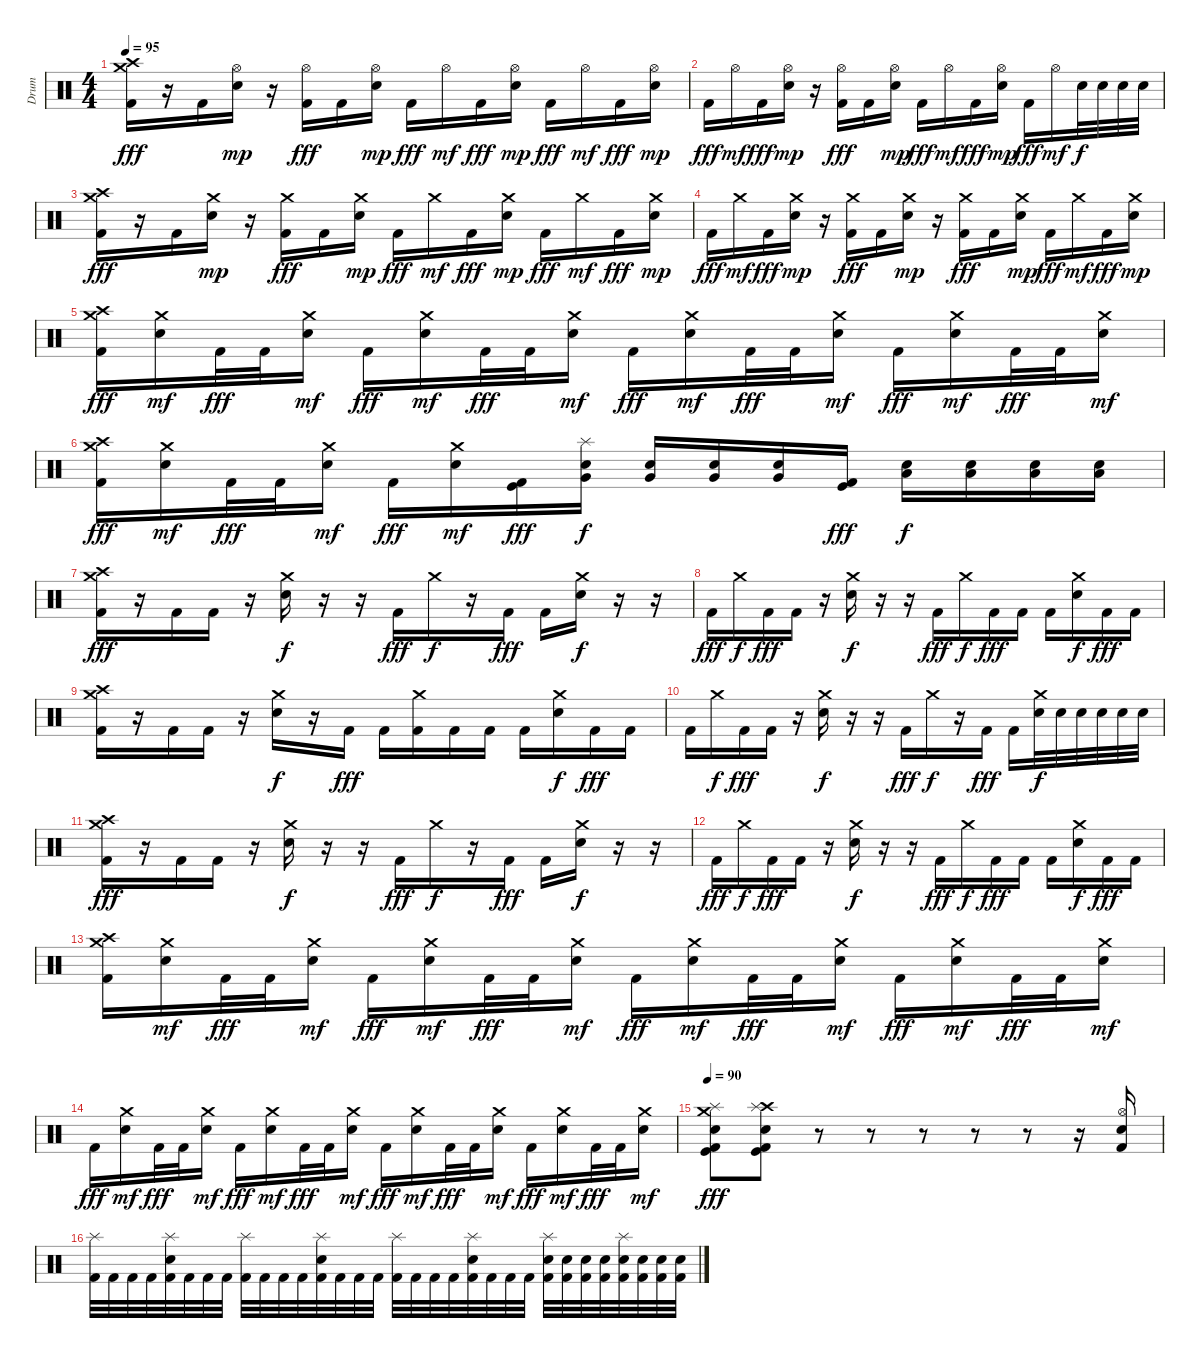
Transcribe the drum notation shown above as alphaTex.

\track ("Drum" "Drum") {instrument percussion}
\staff {score}
\articulation defaults
\ts (4 4)
\tempo 95
\clef neutral
\ks c
("Crash medium (hit)" "Crash high (hit)" "Kick (hit) 2").16{dy fff} r.16 "Kick (hit) 2".16 ("Hi-Hat (open)" "Electric Snare (hit)").16{dy mp} r.16 ("Hi-Hat (open)" "Kick (hit) 2").16{dy fff} "Kick (hit) 2".16 ("Hi-Hat (open)" "Electric Snare (hit)").16{dy mp} "Kick (hit) 2".16{dy fff} "Hi-Hat (open)".16{dy mf} "Kick (hit) 2".16{dy fff} ("Hi-Hat (open)" "Electric Snare (hit)").16{dy mp} "Kick (hit) 2".16{dy fff} "Hi-Hat (open)".16{dy mf} "Kick (hit) 2".16{dy fff} ("Hi-Hat (open)" "Electric Snare (hit)").16{dy mp} |
"Kick (hit) 2".16{dy fff} "Hi-Hat (open)".16{dy mf} "Kick (hit) 2".16{dy fff} ("Hi-Hat (open)" "Electric Snare (hit)").16{dy mp} r.16 ("Hi-Hat (open)" "Kick (hit) 2").16{dy fff} "Kick (hit) 2".16 ("Hi-Hat (open)" "Electric Snare (hit)").16{dy mp} "Kick (hit) 2".16{dy fff} "Hi-Hat (open)".16{dy mf} "Kick (hit) 2".16{dy fff} ("Hi-Hat (open)" "Electric Snare (hit)").16{dy mp} "Kick (hit) 2".16{dy fff} "Hi-Hat (open)".16{dy mf} "Electric Snare (hit)".32{dy f} "Electric Snare (hit)".32 "Electric Snare (hit)".32 "Electric Snare (hit)".32 |
("Crash medium (hit)" "Crash high (hit)" "Kick (hit) 2").16{dy fff} r.16 "Kick (hit) 2".16 ("Crash medium (hit)" "Electric Snare (hit)").16{dy mp} r.16 ("Crash medium (hit)" "Kick (hit) 2").16{dy fff} "Kick (hit) 2".16 ("Crash medium (hit)" "Electric Snare (hit)").16{dy mp} "Kick (hit) 2".16{dy fff} "Crash medium (hit)".16{dy mf} "Kick (hit) 2".16{dy fff} ("Crash medium (hit)" "Electric Snare (hit)").16{dy mp} "Kick (hit) 2".16{dy fff} "Crash medium (hit)".16{dy mf} "Kick (hit) 2".16{dy fff} ("Crash medium (hit)" "Electric Snare (hit)").16{dy mp} |
"Kick (hit) 2".16{dy fff} "Crash medium (hit)".16{dy mf} "Kick (hit) 2".16{dy fff} ("Crash medium (hit)" "Electric Snare (hit)").16{dy mp} r.16 ("Crash medium (hit)" "Kick (hit) 2").16{dy fff} "Kick (hit) 2".16 ("Crash medium (hit)" "Electric Snare (hit)").16{dy mp} r.16 ("Crash medium (hit)" "Kick (hit) 2").16{dy fff} "Kick (hit) 2".16 ("Crash medium (hit)" "Electric Snare (hit)").16{dy mp} "Kick (hit) 2".16{dy fff} "Crash medium (hit)".16{dy mf} "Kick (hit) 2".16{dy fff} ("Crash medium (hit)" "Electric Snare (hit)").16{dy mp} |
("Crash medium (hit)" "Crash high (hit)" "Kick (hit) 2").16{dy fff} ("Crash medium (hit)" "Electric Snare (hit)").16{dy mf} "Kick (hit) 2".32{dy fff} "Kick (hit) 2".32 ("Crash medium (hit)" "Electric Snare (hit)").16{dy mf} "Kick (hit) 2".16{dy fff} ("Crash medium (hit)" "Electric Snare (hit)").16{dy mf} "Kick (hit) 2".32{dy fff} "Kick (hit) 2".32 ("Crash medium (hit)" "Electric Snare (hit)").16{dy mf} "Kick (hit) 2".16{dy fff} ("Crash medium (hit)" "Electric Snare (hit)").16{dy mf} "Kick (hit) 2".32{dy fff} "Kick (hit) 2".32 ("Crash medium (hit)" "Electric Snare (hit)").16{dy mf} "Kick (hit) 2".16{dy fff} ("Crash medium (hit)" "Electric Snare (hit)").16{dy mf} "Kick (hit) 2".32{dy fff} "Kick (hit) 2".32 ("Crash medium (hit)" "Electric Snare (hit)").16{dy mf} |
("Crash medium (hit)" "Crash high (hit)" "Kick (hit) 2").16{dy fff} ("Crash medium (hit)" "Electric Snare (hit)").16{dy mf} "Kick (hit) 2".32{dy fff} "Kick (hit) 2".32 ("Crash medium (hit)" "Electric Snare (hit)").16{dy mf} "Kick (hit) 2".16{dy fff} ("Crash medium (hit)" "Electric Snare (hit)").16{dy mf} ("Kick (hit)" "Kick (hit) 2").16{dy fff} ("Splash (hit)" "Electric Snare (hit)" "Very Low Tom (hit)").16{dy f} ("Electric Snare (hit)" "Very Low Tom (hit)").16 ("Electric Snare (hit)" "Very Low Tom (hit)").16 ("Electric Snare (hit)" "Very Low Tom (hit)").16 ("Kick (hit)" "Kick (hit) 2").16{dy fff} ("Electric Snare (hit)" "Low Floor Tom (hit)").16{dy f} ("Electric Snare (hit)" "Low Floor Tom (hit)").16 ("Electric Snare (hit)" "Low Floor Tom (hit)").16 ("Electric Snare (hit)" "Low Floor Tom (hit)").16 |
("Crash medium (hit)" "Crash high (hit)" "Kick (hit) 2").16{dy fff} r.16 "Kick (hit) 2".16 "Kick (hit) 2".16 r.16 ("Crash medium (hit)" "Electric Snare (hit)").16{dy f} r.16 r.16 "Kick (hit) 2".16{dy fff} "Crash medium (hit)".16{dy f} r.16 "Kick (hit) 2".16{dy fff} "Kick (hit) 2".16 ("Crash medium (hit)" "Electric Snare (hit)").16{dy f} r.16 r.16 |
"Kick (hit) 2".16{dy fff} "Crash medium (hit)".16{dy f} "Kick (hit) 2".16{dy fff} "Kick (hit) 2".16 r.16 ("Crash medium (hit)" "Electric Snare (hit)").16{dy f} r.16 r.16 "Kick (hit) 2".16{dy fff} "Crash medium (hit)".16{dy f} "Kick (hit) 2".16{dy fff} "Kick (hit) 2".16 "Kick (hit) 2".16 ("Crash medium (hit)" "Electric Snare (hit)").16{dy f} "Kick (hit) 2".16{dy fff} "Kick (hit) 2".16 |
("Crash medium (hit)" "Crash high (hit)" "Kick (hit) 2").16 r.16 "Kick (hit) 2".16 "Kick (hit) 2".16 r.16 ("Crash medium (hit)" "Electric Snare (hit)").16{dy f} r.16 "Kick (hit) 2".16{dy fff} "Kick (hit) 2".16 ("Crash medium (hit)" "Kick (hit) 2").16 "Kick (hit) 2".16 "Kick (hit) 2".16 "Kick (hit) 2".16 ("Crash medium (hit)" "Electric Snare (hit)").16{dy f} "Kick (hit) 2".16{dy fff} "Kick (hit) 2".16 |
"Kick (hit) 2".16 "Crash medium (hit)".16{dy f} "Kick (hit) 2".16{dy fff} "Kick (hit) 2".16 r.16 ("Crash medium (hit)" "Electric Snare (hit)").16{dy f} r.16 r.16 "Kick (hit) 2".16{dy fff} "Crash medium (hit)".16{dy f} r.16 "Kick (hit) 2".16{dy fff} "Kick (hit) 2".16 ("Crash medium (hit)" "Electric Snare (hit)").32{dy f} "Electric Snare (hit)".32 "Electric Snare (hit)".32 "Electric Snare (hit)".32 "Electric Snare (hit)".32 "Electric Snare (hit)".32 |
("Crash medium (hit)" "Crash high (hit)" "Kick (hit) 2").16{dy fff} r.16 "Kick (hit) 2".16 "Kick (hit) 2".16 r.16 ("Crash medium (hit)" "Electric Snare (hit)").16{dy f} r.16 r.16 "Kick (hit) 2".16{dy fff} "Crash medium (hit)".16{dy f} r.16 "Kick (hit) 2".16{dy fff} "Kick (hit) 2".16 ("Crash medium (hit)" "Electric Snare (hit)").16{dy f} r.16 r.16 |
"Kick (hit) 2".16{dy fff} "Crash medium (hit)".16{dy f} "Kick (hit) 2".16{dy fff} "Kick (hit) 2".16 r.16 ("Crash medium (hit)" "Electric Snare (hit)").16{dy f} r.16 r.16 "Kick (hit) 2".16{dy fff} "Crash medium (hit)".16{dy f} "Kick (hit) 2".16{dy fff} "Kick (hit) 2".16 "Kick (hit) 2".16 ("Crash medium (hit)" "Electric Snare (hit)").16{dy f} "Kick (hit) 2".16{dy fff} "Kick (hit) 2".16 |
("Crash medium (hit)" "Crash high (hit)" "Kick (hit) 2").16 ("Crash medium (hit)" "Electric Snare (hit)").16{dy mf} "Kick (hit) 2".32{dy fff} "Kick (hit) 2".32 ("Crash medium (hit)" "Electric Snare (hit)").16{dy mf} "Kick (hit) 2".16{dy fff} ("Crash medium (hit)" "Electric Snare (hit)").16{dy mf} "Kick (hit) 2".32{dy fff} "Kick (hit) 2".32 ("Crash medium (hit)" "Electric Snare (hit)").16{dy mf} "Kick (hit) 2".16{dy fff} ("Crash medium (hit)" "Electric Snare (hit)").16{dy mf} "Kick (hit) 2".32{dy fff} "Kick (hit) 2".32 ("Crash medium (hit)" "Electric Snare (hit)").16{dy mf} "Kick (hit) 2".16{dy fff} ("Crash medium (hit)" "Electric Snare (hit)").16{dy mf} "Kick (hit) 2".32{dy fff} "Kick (hit) 2".32 ("Crash medium (hit)" "Electric Snare (hit)").16{dy mf} |
"Kick (hit) 2".16{dy fff} ("Crash medium (hit)" "Electric Snare (hit)").16{dy mf} "Kick (hit) 2".32{dy fff} "Kick (hit) 2".32 ("Crash medium (hit)" "Electric Snare (hit)").16{dy mf} "Kick (hit) 2".16{dy fff} ("Crash medium (hit)" "Electric Snare (hit)").16{dy mf} "Kick (hit) 2".32{dy fff} "Kick (hit) 2".32 ("Crash medium (hit)" "Electric Snare (hit)").16{dy mf} "Kick (hit) 2".16{dy fff} ("Crash medium (hit)" "Electric Snare (hit)").16{dy mf} "Kick (hit) 2".32{dy fff} "Kick (hit) 2".32 ("Crash medium (hit)" "Electric Snare (hit)").16{dy mf} "Kick (hit) 2".16{dy fff} ("Crash medium (hit)" "Electric Snare (hit)").16{dy mf} "Kick (hit) 2".32{dy fff} "Kick (hit) 2".32 ("Crash medium (hit)" "Electric Snare (hit)").16{dy mf} |
\tempo 90
("Crash medium (hit)" "Splash (hit)" "Electric Snare (hit)" "Kick (hit)" "Kick (hit) 2").8{dy fff} ("Crash high (hit)" "Splash (hit)" "Electric Snare (hit)" "Kick (hit)" "Kick (hit) 2").8 r.8 r.8 r.8 r.8 r.8 r.16 ("Hi-Hat (open)" "Electric Snare (hit)" "Kick (hit) 2").16 |
("Splash (hit)" "Kick (hit) 2").32 "Kick (hit) 2".32 "Kick (hit) 2".32 "Kick (hit) 2".32 ("Splash (hit)" "Electric Snare (hit)" "Kick (hit) 2").32 "Kick (hit) 2".32 "Kick (hit) 2".32 "Kick (hit) 2".32 ("Splash (hit)" "Kick (hit) 2").32 "Kick (hit) 2".32 "Kick (hit) 2".32 "Kick (hit) 2".32 ("Splash (hit)" "Electric Snare (hit)" "Kick (hit) 2").32 "Kick (hit) 2".32 "Kick (hit) 2".32 "Kick (hit) 2".32 ("Splash (hit)" "Kick (hit) 2").32 "Kick (hit) 2".32 "Kick (hit) 2".32 "Kick (hit) 2".32 ("Splash (hit)" "Electric Snare (hit)" "Kick (hit) 2").32 "Kick (hit) 2".32 "Kick (hit) 2".32 "Kick (hit) 2".32 ("Splash (hit)" "Electric Snare (hit)" "Kick (hit) 2").32 ("Electric Snare (hit)" "Kick (hit) 2").32 ("Electric Snare (hit)" "Kick (hit) 2").32 ("Electric Snare (hit)" "Kick (hit) 2").32 ("Splash (hit)" "Electric Snare (hit)" "Kick (hit) 2").32 ("Electric Snare (hit)" "Kick (hit) 2").32 ("Electric Snare (hit)" "Kick (hit) 2").32 ("Electric Snare (hit)" "Kick (hit) 2").32
